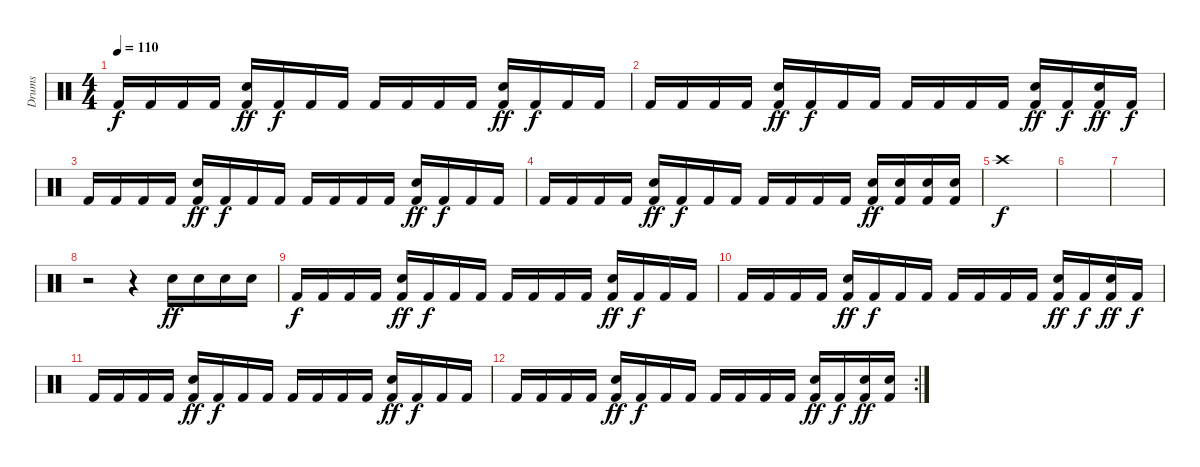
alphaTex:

\track ("Drums" "Drums") {instrument percussion}
\staff {score}
\articulation defaults
\ts (4 4)
\tempo 110
\clef neutral
\ks c "Kick (hit) 2".16{dy f} "Kick (hit) 2".16 "Kick (hit) 2".16 "Kick (hit) 2".16
("Electric Snare (hit)" "Kick (hit) 2").16{dy ff} "Kick (hit) 2".16{dy f} "Kick (hit) 2".16 "Kick (hit) 2".16 "Kick (hit) 2".16 "Kick (hit) 2".16 "Kick (hit) 2".16 "Kick (hit) 2".16 ("Electric Snare (hit)" "Kick (hit) 2").16{dy ff} "Kick (hit) 2".16{dy f} "Kick (hit) 2".16 "Kick (hit) 2".16 |
"Kick (hit) 2".16 "Kick (hit) 2".16 "Kick (hit) 2".16 "Kick (hit) 2".16 ("Electric Snare (hit)" "Kick (hit) 2").16{dy ff} "Kick (hit) 2".16{dy f} "Kick (hit) 2".16 "Kick (hit) 2".16 "Kick (hit) 2".16 "Kick (hit) 2".16 "Kick (hit) 2".16 "Kick (hit) 2".16 ("Electric Snare (hit)" "Kick (hit) 2").16{dy ff} "Kick (hit) 2".16{dy f} ("Electric Snare (hit)" "Kick (hit) 2").16{dy ff} "Kick (hit) 2".16{dy f} |
"Kick (hit) 2".16 "Kick (hit) 2".16 "Kick (hit) 2".16 "Kick (hit) 2".16 ("Electric Snare (hit)" "Kick (hit) 2").16{dy ff} "Kick (hit) 2".16{dy f} "Kick (hit) 2".16 "Kick (hit) 2".16 "Kick (hit) 2".16 "Kick (hit) 2".16 "Kick (hit) 2".16 "Kick (hit) 2".16 ("Electric Snare (hit)" "Kick (hit) 2").16{dy ff} "Kick (hit) 2".16{dy f} "Kick (hit) 2".16 "Kick (hit) 2".16 |
"Kick (hit) 2".16 "Kick (hit) 2".16 "Kick (hit) 2".16 "Kick (hit) 2".16 ("Electric Snare (hit)" "Kick (hit) 2").16{dy ff} "Kick (hit) 2".16{dy f} "Kick (hit) 2".16 "Kick (hit) 2".16 "Kick (hit) 2".16 "Kick (hit) 2".16 "Kick (hit) 2".16 "Kick (hit) 2".16 ("Electric Snare (hit)" "Kick (hit) 2").16{dy ff} ("Electric Snare (hit)" "Kick (hit) 2").16 ("Electric Snare (hit)" "Kick (hit) 2").16 ("Electric Snare (hit)" "Kick (hit) 2").16 |
"Crash high (hit)".1{dy f} |
|
|
r.2 r.4 "Electric Snare (hit)".16{dy ff} "Electric Snare (hit)".16 "Electric Snare (hit)".16 "Electric Snare (hit)".16 |
"Kick (hit) 2".16{dy f} "Kick (hit) 2".16 "Kick (hit) 2".16 "Kick (hit) 2".16 ("Electric Snare (hit)" "Kick (hit) 2").16{dy ff} "Kick (hit) 2".16{dy f} "Kick (hit) 2".16 "Kick (hit) 2".16 "Kick (hit) 2".16 "Kick (hit) 2".16 "Kick (hit) 2".16 "Kick (hit) 2".16 ("Electric Snare (hit)" "Kick (hit) 2").16{dy ff} "Kick (hit) 2".16{dy f} "Kick (hit) 2".16 "Kick (hit) 2".16 |
"Kick (hit) 2".16 "Kick (hit) 2".16 "Kick (hit) 2".16 "Kick (hit) 2".16 ("Electric Snare (hit)" "Kick (hit) 2").16{dy ff} "Kick (hit) 2".16{dy f} "Kick (hit) 2".16 "Kick (hit) 2".16 "Kick (hit) 2".16 "Kick (hit) 2".16 "Kick (hit) 2".16 "Kick (hit) 2".16 ("Electric Snare (hit)" "Kick (hit) 2").16{dy ff} "Kick (hit) 2".16{dy f} ("Electric Snare (hit)" "Kick (hit) 2").16{dy ff} "Kick (hit) 2".16{dy f} |
"Kick (hit) 2".16 "Kick (hit) 2".16 "Kick (hit) 2".16 "Kick (hit) 2".16 ("Electric Snare (hit)" "Kick (hit) 2").16{dy ff} "Kick (hit) 2".16{dy f} "Kick (hit) 2".16 "Kick (hit) 2".16 "Kick (hit) 2".16 "Kick (hit) 2".16 "Kick (hit) 2".16 "Kick (hit) 2".16 ("Electric Snare (hit)" "Kick (hit) 2").16{dy ff} "Kick (hit) 2".16{dy f} "Kick (hit) 2".16 "Kick (hit) 2".16 |
\rc 2 "Kick (hit) 2".16 "Kick (hit) 2".16 "Kick (hit) 2".16 "Kick (hit) 2".16
("Electric Snare (hit)" "Kick (hit) 2").16{dy ff} "Kick (hit) 2".16{dy f} "Kick (hit) 2".16 "Kick (hit) 2".16 "Kick (hit) 2".16 "Kick (hit) 2".16 "Kick (hit) 2".16 "Kick (hit) 2".16 ("Electric Snare (hit)" "Kick (hit) 2").16{dy ff} "Kick (hit) 2".16{dy f} ("Electric Snare (hit)" "Kick (hit) 2").16{dy ff} ("Electric Snare (hit)" "Kick (hit) 2").16
